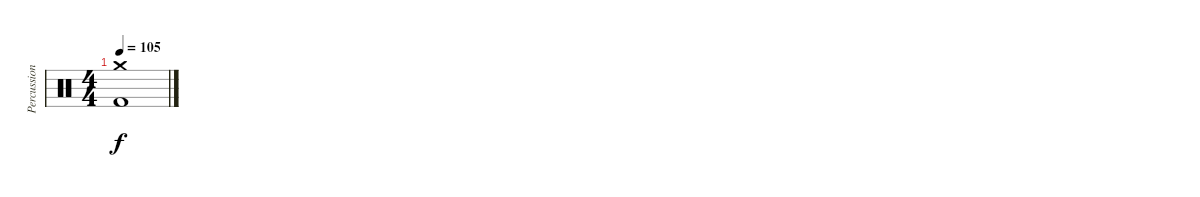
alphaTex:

\track ("Percussion" "Percussion") {instrument percussion}
\staff {score}
\articulation defaults
\ts (4 4)
\tempo 105
\clef neutral
\ks c
("Crash medium (hit)" "Kick (hit) 2").1{dy f}
